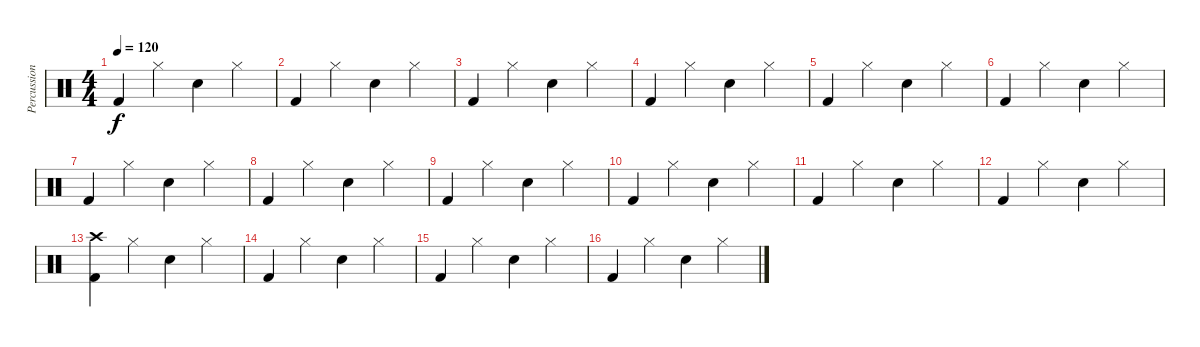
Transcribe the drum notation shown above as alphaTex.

\track ("Percussions" "Percussion") {instrument percussion}
\staff {score}
\articulation defaults
\ts (4 4)
\tempo 120
\clef neutral
\ks c "Kick (hit) 2".4{dy f} "Hi-Hat (closed)".4 "Electric Snare (hit)".4 "Hi-Hat (closed)".4
|
"Kick (hit) 2".4 "Hi-Hat (closed)".4 "Electric Snare (hit)".4 "Hi-Hat (closed)".4 |
"Kick (hit) 2".4 "Hi-Hat (closed)".4 "Electric Snare (hit)".4 "Hi-Hat (closed)".4 |
"Kick (hit) 2".4 "Hi-Hat (closed)".4 "Electric Snare (hit)".4 "Hi-Hat (closed)".4 |
"Kick (hit) 2".4 "Hi-Hat (closed)".4 "Electric Snare (hit)".4 "Hi-Hat (closed)".4 |
"Kick (hit) 2".4 "Hi-Hat (closed)".4 "Electric Snare (hit)".4 "Hi-Hat (closed)".4 |
"Kick (hit) 2".4 "Hi-Hat (closed)".4 "Electric Snare (hit)".4 "Hi-Hat (closed)".4 |
"Kick (hit) 2".4 "Hi-Hat (closed)".4 "Electric Snare (hit)".4 "Hi-Hat (closed)".4 |
"Kick (hit) 2".4 "Hi-Hat (closed)".4 "Electric Snare (hit)".4 "Hi-Hat (closed)".4 |
"Kick (hit) 2".4 "Hi-Hat (closed)".4 "Electric Snare (hit)".4 "Hi-Hat (closed)".4 |
"Kick (hit) 2".4 "Hi-Hat (closed)".4 "Electric Snare (hit)".4 "Hi-Hat (closed)".4 |
"Kick (hit) 2".4 "Hi-Hat (closed)".4 "Electric Snare (hit)".4 "Hi-Hat (closed)".4 |
("Crash high (hit)" "Kick (hit) 2").4 "Hi-Hat (closed)".4 "Electric Snare (hit)".4 "Hi-Hat (closed)".4 |
"Kick (hit) 2".4 "Hi-Hat (closed)".4 "Electric Snare (hit)".4 "Hi-Hat (closed)".4 |
"Kick (hit) 2".4 "Hi-Hat (closed)".4 "Electric Snare (hit)".4 "Hi-Hat (closed)".4 |
"Kick (hit) 2".4 "Hi-Hat (closed)".4 "Electric Snare (hit)".4 "Hi-Hat (closed)".4
